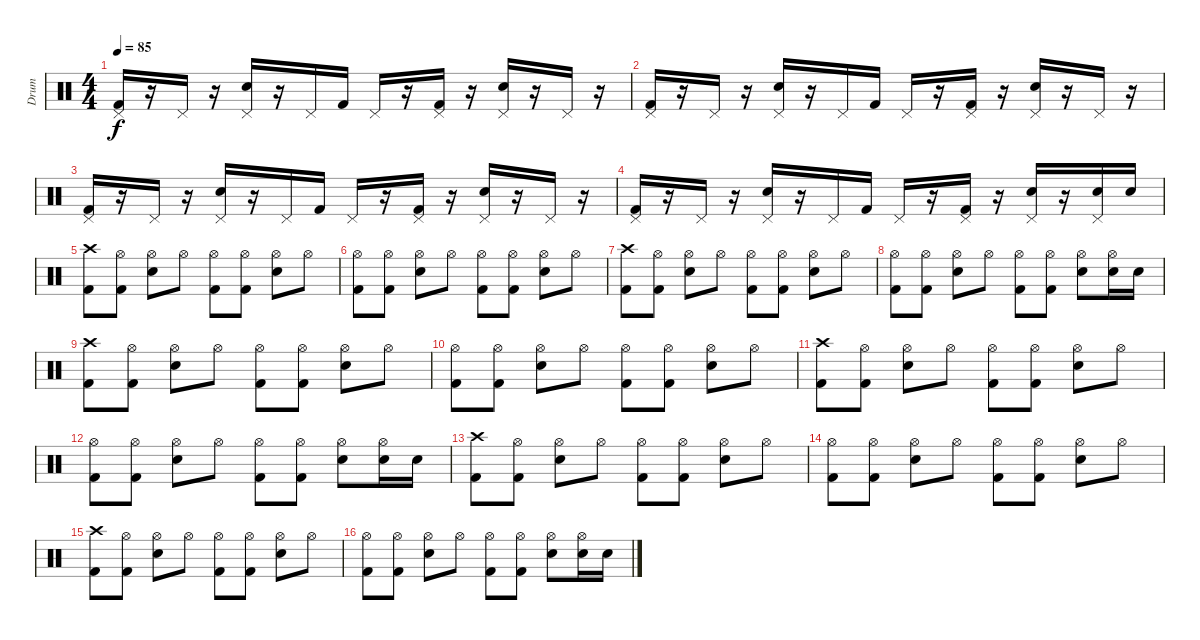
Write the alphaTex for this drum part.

\track ("Drum" "Drum") {instrument percussion}
\staff {score}
\articulation defaults
\ts (4 4)
\tempo 85
\clef neutral
\ks c
("Pedal Hi-Hat (hit)" "Kick (hit) 2").16{dy f} r.16 "Pedal Hi-Hat (hit)".16 r.16 ("Pedal Hi-Hat (hit)" "Electric Snare (hit)").16 r.16 "Pedal Hi-Hat (hit)".16 "Kick (hit) 2".16 "Pedal Hi-Hat (hit)".16 r.16 ("Pedal Hi-Hat (hit)" "Kick (hit) 2").16 r.16 ("Pedal Hi-Hat (hit)" "Electric Snare (hit)").16 r.16 "Pedal Hi-Hat (hit)".16 r.16 |
("Pedal Hi-Hat (hit)" "Kick (hit) 2").16 r.16 "Pedal Hi-Hat (hit)".16 r.16 ("Pedal Hi-Hat (hit)" "Electric Snare (hit)").16 r.16 "Pedal Hi-Hat (hit)".16 "Kick (hit) 2".16 "Pedal Hi-Hat (hit)".16 r.16 ("Pedal Hi-Hat (hit)" "Kick (hit) 2").16 r.16 ("Pedal Hi-Hat (hit)" "Electric Snare (hit)").16 r.16 "Pedal Hi-Hat (hit)".16 r.16 |
("Pedal Hi-Hat (hit)" "Kick (hit) 2").16 r.16 "Pedal Hi-Hat (hit)".16 r.16 ("Pedal Hi-Hat (hit)" "Electric Snare (hit)").16 r.16 "Pedal Hi-Hat (hit)".16 "Kick (hit) 2".16 "Pedal Hi-Hat (hit)".16 r.16 ("Pedal Hi-Hat (hit)" "Kick (hit) 2").16 r.16 ("Pedal Hi-Hat (hit)" "Electric Snare (hit)").16 r.16 "Pedal Hi-Hat (hit)".16 r.16 |
("Pedal Hi-Hat (hit)" "Kick (hit) 2").16 r.16 "Pedal Hi-Hat (hit)".16 r.16 ("Pedal Hi-Hat (hit)" "Electric Snare (hit)").16 r.16 "Pedal Hi-Hat (hit)".16 "Kick (hit) 2".16 "Pedal Hi-Hat (hit)".16 r.16 ("Pedal Hi-Hat (hit)" "Kick (hit) 2").16 r.16 ("Pedal Hi-Hat (hit)" "Electric Snare (hit)").16 r.16 ("Pedal Hi-Hat (hit)" "Electric Snare (hit)").16 "Electric Snare (hit)".16 |
("Crash high (hit)" "Kick (hit) 2").8 ("Hi-Hat (open)" "Kick (hit) 2").8 ("Hi-Hat (open)" "Electric Snare (hit)").8 "Hi-Hat (open)".8 ("Hi-Hat (open)" "Kick (hit) 2").8 ("Hi-Hat (open)" "Kick (hit) 2").8 ("Hi-Hat (open)" "Electric Snare (hit)").8 "Hi-Hat (open)".8 |
("Hi-Hat (open)" "Kick (hit) 2").8 ("Hi-Hat (open)" "Kick (hit) 2").8 ("Hi-Hat (open)" "Electric Snare (hit)").8 "Hi-Hat (open)".8 ("Hi-Hat (open)" "Kick (hit) 2").8 ("Hi-Hat (open)" "Kick (hit) 2").8 ("Hi-Hat (open)" "Electric Snare (hit)").8 "Hi-Hat (open)".8 |
("Crash high (hit)" "Kick (hit) 2").8 ("Hi-Hat (open)" "Kick (hit) 2").8 ("Hi-Hat (open)" "Electric Snare (hit)").8 "Hi-Hat (open)".8 ("Hi-Hat (open)" "Kick (hit) 2").8 ("Hi-Hat (open)" "Kick (hit) 2").8 ("Hi-Hat (open)" "Electric Snare (hit)").8 "Hi-Hat (open)".8 |
("Hi-Hat (open)" "Kick (hit) 2").8 ("Hi-Hat (open)" "Kick (hit) 2").8 ("Hi-Hat (open)" "Electric Snare (hit)").8 "Hi-Hat (open)".8 ("Hi-Hat (open)" "Kick (hit) 2").8 ("Hi-Hat (open)" "Kick (hit) 2").8 ("Hi-Hat (open)" "Electric Snare (hit)").8 ("Hi-Hat (open)" "Electric Snare (hit)").16 "Electric Snare (hit)".16 |
("Crash high (hit)" "Kick (hit) 2").8 ("Hi-Hat (open)" "Kick (hit) 2").8 ("Hi-Hat (open)" "Electric Snare (hit)").8 "Hi-Hat (open)".8 ("Hi-Hat (open)" "Kick (hit) 2").8 ("Hi-Hat (open)" "Kick (hit) 2").8 ("Hi-Hat (open)" "Electric Snare (hit)").8 "Hi-Hat (open)".8 |
("Hi-Hat (open)" "Kick (hit) 2").8 ("Hi-Hat (open)" "Kick (hit) 2").8 ("Hi-Hat (open)" "Electric Snare (hit)").8 "Hi-Hat (open)".8 ("Hi-Hat (open)" "Kick (hit) 2").8 ("Hi-Hat (open)" "Kick (hit) 2").8 ("Hi-Hat (open)" "Electric Snare (hit)").8 "Hi-Hat (open)".8 |
("Crash high (hit)" "Kick (hit) 2").8 ("Hi-Hat (open)" "Kick (hit) 2").8 ("Hi-Hat (open)" "Electric Snare (hit)").8 "Hi-Hat (open)".8 ("Hi-Hat (open)" "Kick (hit) 2").8 ("Hi-Hat (open)" "Kick (hit) 2").8 ("Hi-Hat (open)" "Electric Snare (hit)").8 "Hi-Hat (open)".8 |
("Hi-Hat (open)" "Kick (hit) 2").8 ("Hi-Hat (open)" "Kick (hit) 2").8 ("Hi-Hat (open)" "Electric Snare (hit)").8 "Hi-Hat (open)".8 ("Hi-Hat (open)" "Kick (hit) 2").8 ("Hi-Hat (open)" "Kick (hit) 2").8 ("Hi-Hat (open)" "Electric Snare (hit)").8 ("Hi-Hat (open)" "Electric Snare (hit)").16 "Electric Snare (hit)".16 |
("Crash high (hit)" "Kick (hit) 2").8 ("Hi-Hat (open)" "Kick (hit) 2").8 ("Hi-Hat (open)" "Electric Snare (hit)").8 "Hi-Hat (open)".8 ("Hi-Hat (open)" "Kick (hit) 2").8 ("Hi-Hat (open)" "Kick (hit) 2").8 ("Hi-Hat (open)" "Electric Snare (hit)").8 "Hi-Hat (open)".8 |
("Hi-Hat (open)" "Kick (hit) 2").8 ("Hi-Hat (open)" "Kick (hit) 2").8 ("Hi-Hat (open)" "Electric Snare (hit)").8 "Hi-Hat (open)".8 ("Hi-Hat (open)" "Kick (hit) 2").8 ("Hi-Hat (open)" "Kick (hit) 2").8 ("Hi-Hat (open)" "Electric Snare (hit)").8 "Hi-Hat (open)".8 |
("Crash high (hit)" "Kick (hit) 2").8 ("Hi-Hat (open)" "Kick (hit) 2").8 ("Hi-Hat (open)" "Electric Snare (hit)").8 "Hi-Hat (open)".8 ("Hi-Hat (open)" "Kick (hit) 2").8 ("Hi-Hat (open)" "Kick (hit) 2").8 ("Hi-Hat (open)" "Electric Snare (hit)").8 "Hi-Hat (open)".8 |
("Hi-Hat (open)" "Kick (hit) 2").8 ("Hi-Hat (open)" "Kick (hit) 2").8 ("Hi-Hat (open)" "Electric Snare (hit)").8 "Hi-Hat (open)".8 ("Hi-Hat (open)" "Kick (hit) 2").8 ("Hi-Hat (open)" "Kick (hit) 2").8 ("Hi-Hat (open)" "Electric Snare (hit)").8 ("Hi-Hat (open)" "Electric Snare (hit)").16 "Electric Snare (hit)".16
